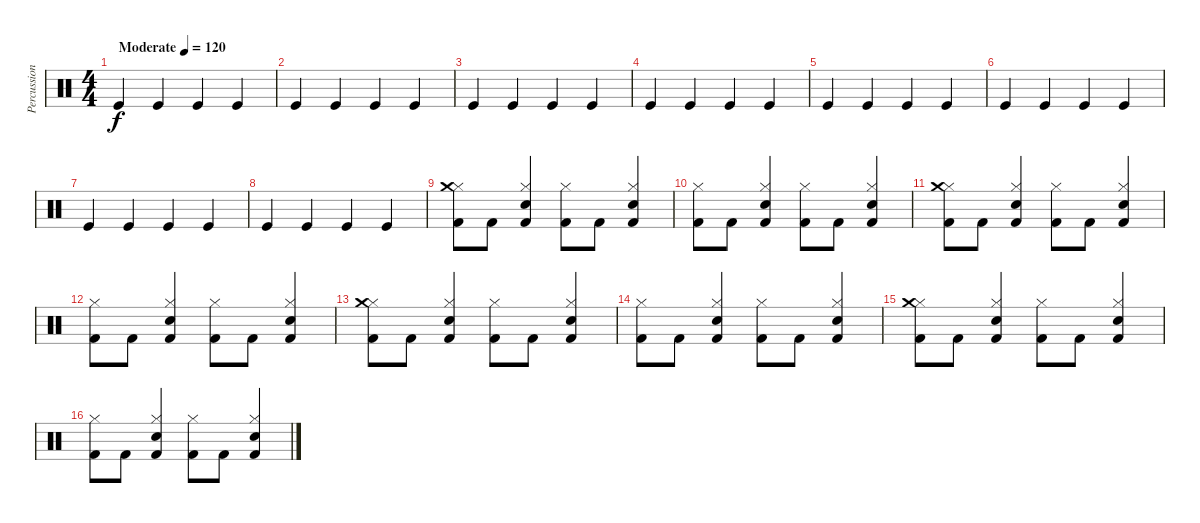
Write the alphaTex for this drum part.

\track ("Percussion" "Percussion") {instrument percussion}
\staff {score}
\articulation defaults
\ts (4 4)
\tempo (120 "Moderate")
\clef neutral
\ks c "Kick (hit)".4{dy f} "Kick (hit)".4 "Kick (hit)".4 "Kick (hit)".4
|
"Kick (hit)".4 "Kick (hit)".4 "Kick (hit)".4 "Kick (hit)".4 |
"Kick (hit)".4 "Kick (hit)".4 "Kick (hit)".4 "Kick (hit)".4 |
"Kick (hit)".4 "Kick (hit)".4 "Kick (hit)".4 "Kick (hit)".4 |
"Kick (hit)".4 "Kick (hit)".4 "Kick (hit)".4 "Kick (hit)".4 |
"Kick (hit)".4 "Kick (hit)".4 "Kick (hit)".4 "Kick (hit)".4 |
"Kick (hit)".4 "Kick (hit)".4 "Kick (hit)".4 "Kick (hit)".4 |
"Kick (hit)".4 "Kick (hit)".4 "Kick (hit)".4 "Kick (hit)".4 |
("Kick (hit) 2" "Hi-Hat (closed)" "Crash medium (hit)").8 "Kick (hit) 2".8 ("Kick (hit) 2" "Snare (hit) 2" "Hi-Hat (closed)").4 ("Kick (hit) 2" "Hi-Hat (closed)").8 "Kick (hit) 2".8 ("Kick (hit) 2" "Snare (hit) 2" "Hi-Hat (closed)").4 |
("Kick (hit) 2" "Hi-Hat (closed)").8 "Kick (hit) 2".8 ("Kick (hit) 2" "Snare (hit) 2" "Hi-Hat (closed)").4 ("Kick (hit) 2" "Hi-Hat (closed)").8 "Kick (hit) 2".8 ("Kick (hit) 2" "Snare (hit) 2" "Hi-Hat (closed)").4 |
("Kick (hit) 2" "Hi-Hat (closed)" "Crash medium (hit)").8 "Kick (hit) 2".8 ("Kick (hit) 2" "Snare (hit) 2" "Hi-Hat (closed)").4 ("Kick (hit) 2" "Hi-Hat (closed)").8 "Kick (hit) 2".8 ("Kick (hit) 2" "Snare (hit) 2" "Hi-Hat (closed)").4 |
("Kick (hit) 2" "Hi-Hat (closed)").8 "Kick (hit) 2".8 ("Kick (hit) 2" "Snare (hit) 2" "Hi-Hat (closed)").4 ("Kick (hit) 2" "Hi-Hat (closed)").8 "Kick (hit) 2".8 ("Kick (hit) 2" "Snare (hit) 2" "Hi-Hat (closed)").4 |
("Kick (hit) 2" "Hi-Hat (closed)" "Crash medium (hit)").8 "Kick (hit) 2".8 ("Kick (hit) 2" "Snare (hit) 2" "Hi-Hat (closed)").4 ("Kick (hit) 2" "Hi-Hat (closed)").8 "Kick (hit) 2".8 ("Kick (hit) 2" "Snare (hit) 2" "Hi-Hat (closed)").4 |
("Kick (hit) 2" "Hi-Hat (closed)").8 "Kick (hit) 2".8 ("Kick (hit) 2" "Snare (hit) 2" "Hi-Hat (closed)").4 ("Kick (hit) 2" "Hi-Hat (closed)").8 "Kick (hit) 2".8 ("Kick (hit) 2" "Snare (hit) 2" "Hi-Hat (closed)").4 |
("Kick (hit) 2" "Hi-Hat (closed)" "Crash medium (hit)").8 "Kick (hit) 2".8 ("Kick (hit) 2" "Snare (hit) 2" "Hi-Hat (closed)").4 ("Kick (hit) 2" "Hi-Hat (closed)").8 "Kick (hit) 2".8 ("Kick (hit) 2" "Snare (hit) 2" "Hi-Hat (closed)").4 |
("Kick (hit) 2" "Hi-Hat (closed)").8 "Kick (hit) 2".8 ("Kick (hit) 2" "Snare (hit) 2" "Hi-Hat (closed)").4 ("Kick (hit) 2" "Hi-Hat (closed)").8 "Kick (hit) 2".8 ("Kick (hit) 2" "Snare (hit) 2" "Hi-Hat (closed)").4
